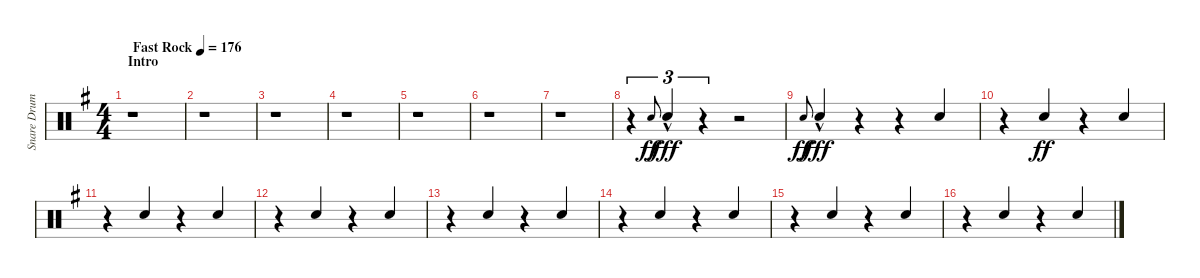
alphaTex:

\track ("Snare Drum" "Snare Drum") {instrument percussion}
\staff {score}
\articulation defaults
\ts (4 4)
\section ("" "Intro")
\tempo (176 "Fast Rock")
\clef neutral
\ks eminor
r.1{dy ff} |
r.1 |
r.1 |
r.1 |
r.1 |
r.1 |
r.1 |
r.4{tu (3 2) beam Up} "Electric Snare (hit)".8{gr onbeat} "Electric Snare (hit)"{hac}.4{tu (3 2) dy fff beam Up} r.4{tu (3 2) beam Up} r.2 |
"Electric Snare (hit)".8{gr onbeat dy ff} "Electric Snare (hit)"{hac}.4{dy fff beam Up} r.4 r.4 "Electric Snare (hit)".4{beam Up} |
r.4 "Electric Snare (hit)".4{dy ff beam Up} r.4 "Electric Snare (hit)".4{beam Up} |
r.4 "Electric Snare (hit)".4{beam Up} r.4 "Electric Snare (hit)".4{beam Up} |
r.4 "Electric Snare (hit)".4{beam Up} r.4 "Electric Snare (hit)".4{beam Up} |
r.4 "Electric Snare (hit)".4{beam Up} r.4 "Electric Snare (hit)".4{beam Up} |
r.4 "Electric Snare (hit)".4{beam Up} r.4 "Electric Snare (hit)".4{beam Up} |
r.4 "Electric Snare (hit)".4{beam Up} r.4 "Electric Snare (hit)".4{beam Up} |
r.4 "Electric Snare (hit)".4{beam Up} r.4 "Electric Snare (hit)".4{beam Up}
